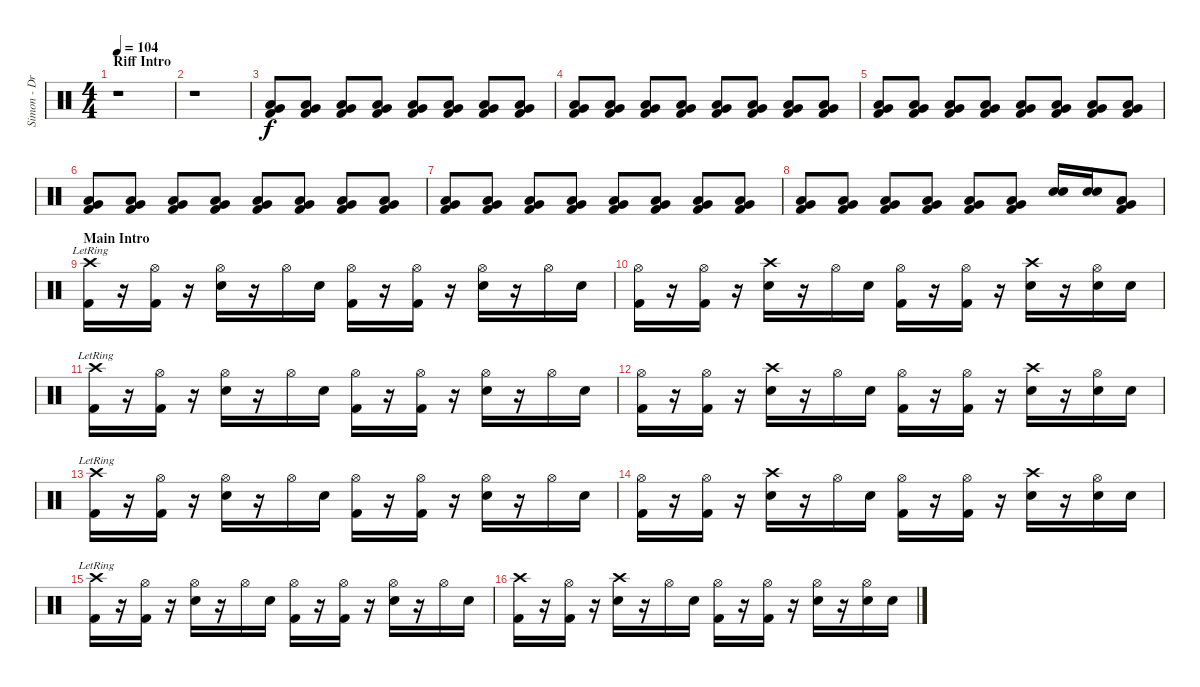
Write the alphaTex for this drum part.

\track ("Simon - Drums" "Simon - Dr") {instrument percussion}
\staff {score}
\articulation defaults
\ts (4 4)
\section ("" "Riff Intro")
\tempo 104
\clef neutral
\ks c
r.1{dy f} |
r.1 |
("Low Tom (hit)" "Very Low Tom (hit)" "Kick (hit) 2").8 ("Low Tom (hit)" "Very Low Tom (hit)" "Kick (hit) 2").8 ("Low Tom (hit)" "Very Low Tom (hit)" "Kick (hit) 2").8 ("Low Tom (hit)" "Very Low Tom (hit)" "Kick (hit) 2").8 ("Low Tom (hit)" "Very Low Tom (hit)" "Kick (hit) 2").8 ("Low Tom (hit)" "Very Low Tom (hit)" "Kick (hit) 2").8 ("Low Tom (hit)" "Very Low Tom (hit)" "Kick (hit) 2").8 ("Low Tom (hit)" "Very Low Tom (hit)" "Kick (hit) 2").8 |
("Low Tom (hit)" "Very Low Tom (hit)" "Kick (hit) 2").8 ("Low Tom (hit)" "Very Low Tom (hit)" "Kick (hit) 2").8 ("Low Tom (hit)" "Very Low Tom (hit)" "Kick (hit) 2").8 ("Low Tom (hit)" "Very Low Tom (hit)" "Kick (hit) 2").8 ("Low Tom (hit)" "Very Low Tom (hit)" "Kick (hit) 2").8 ("Low Tom (hit)" "Very Low Tom (hit)" "Kick (hit) 2").8 ("Low Tom (hit)" "Very Low Tom (hit)" "Kick (hit) 2").8 ("Low Tom (hit)" "Very Low Tom (hit)" "Kick (hit) 2").8 |
("Low Tom (hit)" "Very Low Tom (hit)" "Kick (hit) 2").8 ("Low Tom (hit)" "Very Low Tom (hit)" "Kick (hit) 2").8 ("Low Tom (hit)" "Very Low Tom (hit)" "Kick (hit) 2").8 ("Low Tom (hit)" "Very Low Tom (hit)" "Kick (hit) 2").8 ("Low Tom (hit)" "Very Low Tom (hit)" "Kick (hit) 2").8 ("Low Tom (hit)" "Very Low Tom (hit)" "Kick (hit) 2").8 ("Low Tom (hit)" "Very Low Tom (hit)" "Kick (hit) 2").8 ("Low Tom (hit)" "Very Low Tom (hit)" "Kick (hit) 2").8 |
("Low Tom (hit)" "Very Low Tom (hit)" "Kick (hit) 2").8 ("Low Tom (hit)" "Very Low Tom (hit)" "Kick (hit) 2").8 ("Low Tom (hit)" "Very Low Tom (hit)" "Kick (hit) 2").8 ("Low Tom (hit)" "Very Low Tom (hit)" "Kick (hit) 2").8 ("Low Tom (hit)" "Very Low Tom (hit)" "Kick (hit) 2").8 ("Low Tom (hit)" "Very Low Tom (hit)" "Kick (hit) 2").8 ("Low Tom (hit)" "Very Low Tom (hit)" "Kick (hit) 2").8 ("Low Tom (hit)" "Very Low Tom (hit)" "Kick (hit) 2").8 |
("Low Tom (hit)" "Very Low Tom (hit)" "Kick (hit) 2").8 ("Low Tom (hit)" "Very Low Tom (hit)" "Kick (hit) 2").8 ("Low Tom (hit)" "Very Low Tom (hit)" "Kick (hit) 2").8 ("Low Tom (hit)" "Very Low Tom (hit)" "Kick (hit) 2").8 ("Low Tom (hit)" "Very Low Tom (hit)" "Kick (hit) 2").8 ("Low Tom (hit)" "Very Low Tom (hit)" "Kick (hit) 2").8 ("Low Tom (hit)" "Very Low Tom (hit)" "Kick (hit) 2").8 ("Low Tom (hit)" "Very Low Tom (hit)" "Kick (hit) 2").8 |
("Low Tom (hit)" "Very Low Tom (hit)" "Kick (hit) 2").8 ("Low Tom (hit)" "Very Low Tom (hit)" "Kick (hit) 2").8 ("Low Tom (hit)" "Very Low Tom (hit)" "Kick (hit) 2").8 ("Low Tom (hit)" "Very Low Tom (hit)" "Kick (hit) 2").8 ("Low Tom (hit)" "Very Low Tom (hit)" "Kick (hit) 2").8 ("Low Tom (hit)" "Very Low Tom (hit)" "Kick (hit) 2").8 ("Electric Snare (hit)" "Electric Snare (hit)").16 ("Electric Snare (hit)" "Electric Snare (hit)").16 ("Low Tom (hit)" "Very Low Tom (hit)" "Kick (hit) 2").8 |
\section ("" "Main Intro")
("Crash high (hit)"{lr} "Kick (hit) 2").16 r.16 ("Hi-Hat (open)" "Kick (hit) 2").16 r.16 ("Hi-Hat (open)" "Electric Snare (hit)").16 r.16 "Hi-Hat (open)".16 "Electric Snare (hit)".16 ("Hi-Hat (open)" "Kick (hit) 2").16 r.16 ("Hi-Hat (open)" "Kick (hit) 2").16 r.16 ("Hi-Hat (open)" "Electric Snare (hit)").16 r.16 "Hi-Hat (open)".16 "Electric Snare (hit)".16 |
("Hi-Hat (open)" "Kick (hit) 2").16 r.16 ("Hi-Hat (open)" "Kick (hit) 2").16 r.16 ("Crash high (hit)" "Electric Snare (hit)").16 r.16 "Hi-Hat (open)".16 "Electric Snare (hit)".16 ("Hi-Hat (open)" "Kick (hit) 2").16 r.16 ("Hi-Hat (open)" "Kick (hit) 2").16 r.16 ("Crash high (hit)" "Electric Snare (hit)").16 r.16 ("Hi-Hat (open)" "Electric Snare (hit)").16 "Electric Snare (hit)".16 |
("Crash high (hit)"{lr} "Kick (hit) 2").16 r.16 ("Hi-Hat (open)" "Kick (hit) 2").16 r.16 ("Hi-Hat (open)" "Electric Snare (hit)").16 r.16 "Hi-Hat (open)".16 "Electric Snare (hit)".16 ("Hi-Hat (open)" "Kick (hit) 2").16 r.16 ("Hi-Hat (open)" "Kick (hit) 2").16 r.16 ("Hi-Hat (open)" "Electric Snare (hit)").16 r.16 "Hi-Hat (open)".16 "Electric Snare (hit)".16 |
("Hi-Hat (open)" "Kick (hit) 2").16 r.16 ("Hi-Hat (open)" "Kick (hit) 2").16 r.16 ("Crash high (hit)" "Electric Snare (hit)").16 r.16 "Hi-Hat (open)".16 "Electric Snare (hit)".16 ("Hi-Hat (open)" "Kick (hit) 2").16 r.16 ("Hi-Hat (open)" "Kick (hit) 2").16 r.16 ("Crash high (hit)" "Electric Snare (hit)").16 r.16 ("Hi-Hat (open)" "Electric Snare (hit)").16 "Electric Snare (hit)".16 |
("Crash high (hit)"{lr} "Kick (hit) 2").16 r.16 ("Hi-Hat (open)" "Kick (hit) 2").16 r.16 ("Hi-Hat (open)" "Electric Snare (hit)").16 r.16 "Hi-Hat (open)".16 "Electric Snare (hit)".16 ("Hi-Hat (open)" "Kick (hit) 2").16 r.16 ("Hi-Hat (open)" "Kick (hit) 2").16 r.16 ("Hi-Hat (open)" "Electric Snare (hit)").16 r.16 "Hi-Hat (open)".16 "Electric Snare (hit)".16 |
("Hi-Hat (open)" "Kick (hit) 2").16 r.16 ("Hi-Hat (open)" "Kick (hit) 2").16 r.16 ("Crash high (hit)" "Electric Snare (hit)").16 r.16 "Hi-Hat (open)".16 "Electric Snare (hit)".16 ("Hi-Hat (open)" "Kick (hit) 2").16 r.16 ("Hi-Hat (open)" "Kick (hit) 2").16 r.16 ("Crash high (hit)" "Electric Snare (hit)").16 r.16 ("Hi-Hat (open)" "Electric Snare (hit)").16 "Electric Snare (hit)".16 |
("Crash high (hit)"{lr} "Kick (hit) 2").16 r.16 ("Hi-Hat (open)" "Kick (hit) 2").16 r.16 ("Hi-Hat (open)" "Electric Snare (hit)").16 r.16 "Hi-Hat (open)".16 "Electric Snare (hit)".16 ("Hi-Hat (open)" "Kick (hit) 2").16 r.16 ("Hi-Hat (open)" "Kick (hit) 2").16 r.16 ("Hi-Hat (open)" "Electric Snare (hit)").16 r.16 "Hi-Hat (open)".16 "Electric Snare (hit)".16 |
("Crash high (hit)" "Kick (hit) 2").16 r.16 ("Hi-Hat (open)" "Kick (hit) 2").16 r.16 ("Crash high (hit)" "Electric Snare (hit)").16 r.16 "Hi-Hat (open)".16 "Electric Snare (hit)".16 ("Hi-Hat (open)" "Kick (hit) 2").16 r.16 ("Hi-Hat (open)" "Kick (hit) 2").16 r.16 ("Hi-Hat (open)" "Electric Snare (hit)").16 r.16 ("Hi-Hat (open)" "Electric Snare (hit)").16 "Electric Snare (hit)".16
